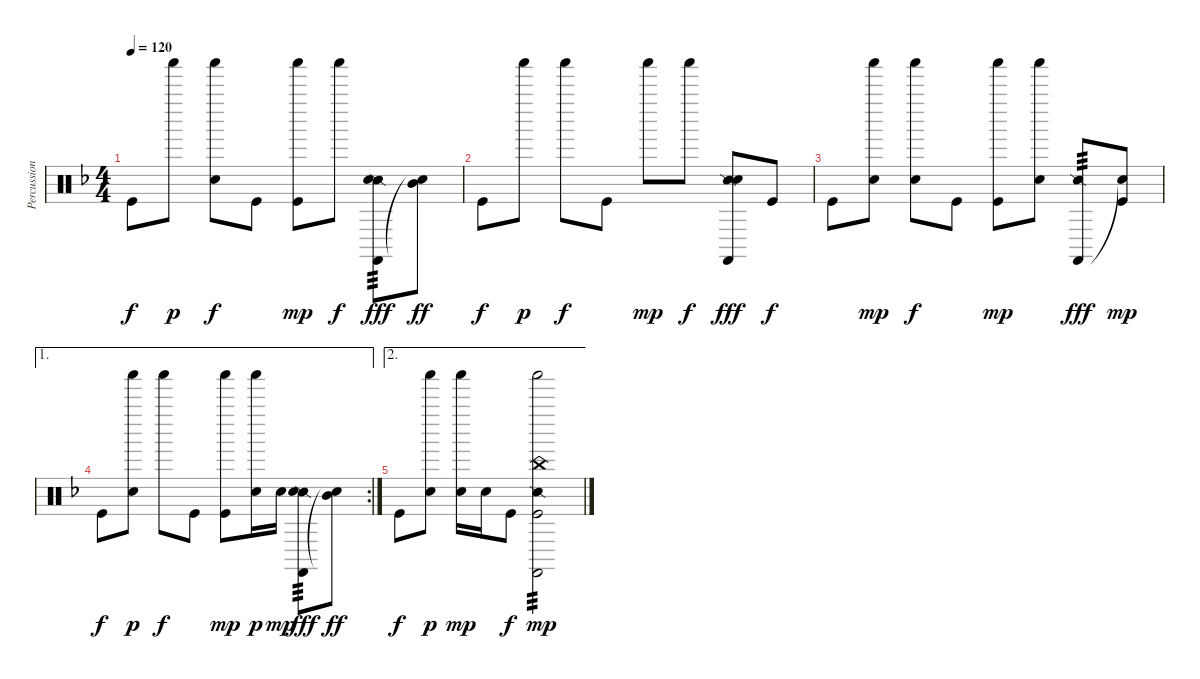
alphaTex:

\track ("Percussion" "Percussion") {instrument percussion}
\staff {score}
\articulation defaults
\ts (4 4)
\tempo 120
\clef neutral
\ks dminor "Kick (hit)".8{dy f} "Shaker (hit)".8{dy p}
("Shaker (hit)" "Electric Snare (hit)").8{dy f} "Kick (hit)".8 ("Shaker (hit)" "Kick (hit)").8{dy mp} "Shaker (hit)".8{dy f} ("Castanets (hit)" "Snare (side stick) 2" "Electric Snare (hit)").8{tp 3 dy fff} ("Snare (hit)"{t} "Mid Tom (hit)").8{dy ff} |
"Kick (hit)".8{dy f} "Shaker (hit)".8{dy p} "Shaker (hit)".8{dy f} "Kick (hit)".8 "Shaker (hit)".8{dy mp} "Shaker (hit)".8{dy f} ("Castanets (hit)" "Snare (side stick) 2" "Electric Snare (hit)").8{dy fff} "Kick (hit)".8{dy f} |
"Kick (hit)".8 ("Shaker (hit)" "Electric Snare (hit)").8{dy mp} ("Shaker (hit)" "Electric Snare (hit)").8{dy f} "Kick (hit)".8 ("Shaker (hit)" "Kick (hit)").8{dy mp} ("Shaker (hit)" "Electric Snare (hit)").8 ("Castanets (hit)" "Snare (side stick) 2").8{tp 3 dy fff} ("Snare (hit)"{t} "Kick (hit)").8{dy mp} |
\ae 1
\rc 2 "Kick (hit)".8{dy f}
("Shaker (hit)" "Electric Snare (hit)").8{dy p} "Shaker (hit)".8{dy f} "Kick (hit)".8 ("Shaker (hit)" "Kick (hit)").8{dy mp} ("Shaker (hit)" "Electric Snare (hit)").16{dy p} "Electric Snare (hit)".16{dy mp} ("Castanets (hit)" "Snare (side stick) 2" "Electric Snare (hit)").8{tp 3 dy fff} ("Snare (hit)"{t} "Mid Tom (hit)").8{dy ff} |
\ae 2 "Kick (hit)".8{dy f}
("Shaker (hit)" "Electric Snare (hit)").8{dy p} ("Shaker (hit)" "Electric Snare (hit)").16{dy mp} "Electric Snare (hit)".16 "Kick (hit)".8{dy f} ("China (hit)" "Shaker (hit)" "Castanets (hit)" "Snare (side stick) 2" "Kick (hit)").2{tp 3 dy mp}
